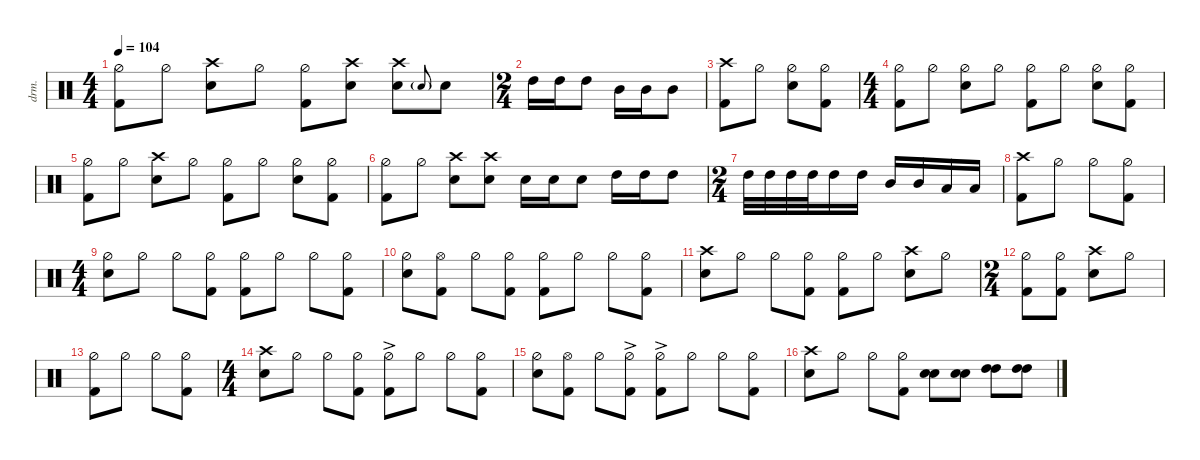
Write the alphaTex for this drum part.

\defaultSystemsLayout 4
\hideDynamics
\bracketExtendMode nobrackets
\track ("Drums" "drm.") {defaultSystemsLayout 4 multiBarRest instrument percussion}
\staff
\articulation defaults
\ts (4 4)
\tempo 104
\clef neutral
\ks c
("Kick (hit) 2" "Hi-Hat (half)").8{dy f} "Hi-Hat (half)".8 ("Snare (hit) 2" "Crash high (hit)").8 "Hi-Hat (half)".8 ("Kick (hit) 2" "Hi-Hat (half)").8 ("Snare (hit) 2" "Crash high (hit)").8 ("Snare (hit) 2" "Crash high (hit)").8 "Snare (hit) 2"{g}.8{gr onbeat} "Snare (hit) 2".8 |
\ts (2 4)
\beaming (8 2 2)
"High Tom (hit)".16{dy ff} "High Tom (hit)".16 "High Tom (hit)".8 "Mid Tom (hit)".16 "Mid Tom (hit)".16 "Mid Tom (hit)".8 |
("Crash high (hit)" "Kick (hit) 2").8{dy f} "Hi-Hat (half)".8 ("Hi-Hat (half)" "Snare (hit) 2").8 ("Hi-Hat (half)" "Kick (hit) 2").8 |
\ts (4 4)
\beaming (8 2 2 2 2)
("Kick (hit) 2" "Hi-Hat (half)").8 "Hi-Hat (half)".8 ("Hi-Hat (half)" "Snare (hit) 2").8 "Hi-Hat (half)".8 ("Kick (hit) 2" "Hi-Hat (half)").8 "Hi-Hat (half)".8 ("Hi-Hat (half)" "Snare (hit) 2").8 ("Hi-Hat (half)" "Kick (hit) 2").8 |
("Kick (hit) 2" "Hi-Hat (half)").8 "Hi-Hat (half)".8 ("Snare (hit) 2" "Crash high (hit)").8 "Hi-Hat (half)".8 ("Kick (hit) 2" "Hi-Hat (half)").8 "Hi-Hat (half)".8 ("Snare (hit) 2" "Hi-Hat (half)").8 ("Kick (hit) 2" "Hi-Hat (half)").8 |
("Kick (hit) 2" "Hi-Hat (half)").8 "Hi-Hat (half)".8 ("Snare (hit) 2" "Crash high (hit)").8 ("Snare (hit) 2" "Crash high (hit)").8 "Snare (hit) 2".16 "Snare (hit) 2".16 "Snare (hit) 2".8 "High Tom (hit)".16{dy ff} "High Tom (hit)".16 "High Tom (hit)".8 |
\ts (2 4)
\beaming (8 2 2)
"High Tom (hit)".32 "High Tom (hit)".32 "High Tom (hit)".32 "High Tom (hit)".32 "High Tom (hit)".16 "High Tom (hit)".16 "Mid Tom (hit)".16 "Mid Tom (hit)".16 "Low Tom (hit)".16 "Low Tom (hit)".16 |
("Kick (hit) 2" "Crash high (hit)").8{dy f} "Hi-Hat (half)".8 "Hi-Hat (half)".8 ("Hi-Hat (half)" "Kick (hit) 2").8 |
\ts (4 4)
\beaming (8 2 2 2 2)
("Hi-Hat (half)" "Snare (hit) 2").8 "Hi-Hat (half)".8 "Hi-Hat (half)".8 ("Kick (hit) 2" "Hi-Hat (half)").8 ("Hi-Hat (half)" "Kick (hit) 2").8 "Hi-Hat (half)".8 "Hi-Hat (half)".8 ("Hi-Hat (half)" "Kick (hit) 2").8 |
("Snare (hit) 2" "Hi-Hat (half)").8 ("Hi-Hat (open)" "Kick (hit) 2").8 "Hi-Hat (half)".8 ("Hi-Hat (half)" "Kick (hit) 2").8 ("Hi-Hat (half)" "Kick (hit) 2").8 "Hi-Hat (half)".8 "Hi-Hat (half)".8 ("Hi-Hat (half)" "Kick (hit) 2").8 |
("Snare (hit) 2" "Crash high (hit)").8 "Hi-Hat (half)".8 "Hi-Hat (half)".8 ("Kick (hit) 2" "Hi-Hat (half)").8 ("Hi-Hat (half)" "Kick (hit) 2").8 "Hi-Hat (half)".8 ("Crash high (hit)" "Snare (hit) 2").8 "Hi-Hat (half)".8 |
\ts (2 4)
\beaming (8 2 2)
("Hi-Hat (half)" "Kick (hit) 2").8 ("Hi-Hat (half)" "Kick (hit) 2").8 ("Crash high (hit)" "Snare (hit) 2").8 "Hi-Hat (half)".8 |
("Kick (hit) 2" "Hi-Hat (half)").8 "Hi-Hat (half)".8 "Hi-Hat (half)".8 ("Hi-Hat (half)" "Kick (hit) 2").8 |
\ts (4 4)
\beaming (8 2 2 2 2)
("Snare (hit) 2" "Crash high (hit)").8 "Hi-Hat (half)".8 "Hi-Hat (half)".8 ("Kick (hit) 2" "Hi-Hat (half)").8 ("Hi-Hat (half)"{ac} "Kick (hit) 2").8 "Hi-Hat (half)".8 "Hi-Hat (half)".8 ("Hi-Hat (half)" "Kick (hit) 2").8 |
("Snare (hit) 2" "Hi-Hat (half)").8 ("Hi-Hat (open)" "Kick (hit) 2").8 "Hi-Hat (half)".8 ("Hi-Hat (half)"{ac} "Kick (hit) 2").8 ("Hi-Hat (half)"{ac} "Kick (hit) 2").8 "Hi-Hat (half)".8 "Hi-Hat (half)".8 ("Hi-Hat (half)" "Kick (hit) 2").8 |
("Snare (hit) 2" "Crash high (hit)").8 "Hi-Hat (half)".8 "Hi-Hat (half)".8 ("Kick (hit) 2" "Hi-Hat (half)").8 ("Snare (hit) 2" "Snare (hit) 2").8 ("Snare (hit) 2" "Snare (hit) 2").8 ("High Tom (hit)" "High Tom (hit)").8{dy ff} ("High Tom (hit)" "High Tom (hit)").8
